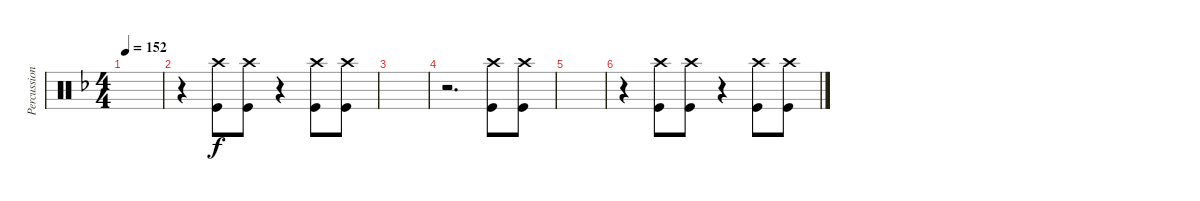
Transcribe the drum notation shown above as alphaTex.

\track ("Percussion" "Percussion") {instrument percussion}
\staff {score}
\articulation defaults
\ts (4 4)
\tempo 152
\clef neutral
\ks f
|
r.4 ("Crash high (hit)" "Kick (hit)").8 ("Crash high (hit)" "Kick (hit)").8 r.4 ("Crash high (hit)" "Kick (hit)").8 ("Crash high (hit)" "Kick (hit)").8 |
|
r.2{d} ("Crash high (hit)" "Kick (hit)").8 ("Crash high (hit)" "Kick (hit)").8 |
|
r.4 ("Crash high (hit)" "Kick (hit)").8 ("Crash high (hit)" "Kick (hit)").8 r.4 ("Crash high (hit)" "Kick (hit)").8 ("Crash high (hit)" "Kick (hit)").8
